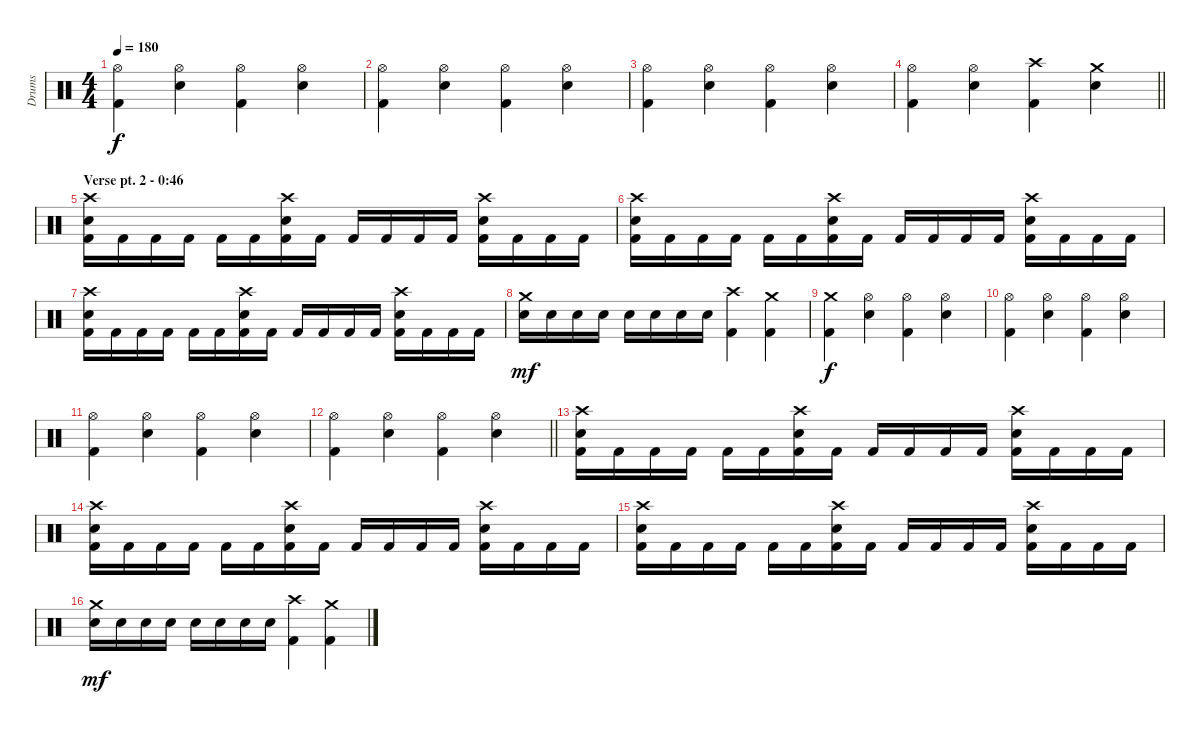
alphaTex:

\track ("Drums" "Drums") {instrument percussion}
\staff {score}
\articulation defaults
\ts (4 4)
\tempo 180
\clef neutral
\ks c
("Hi-Hat (open)" "Kick (hit) 2").4{dy f} ("Hi-Hat (open)" "Electric Snare (hit)").4 ("Hi-Hat (open)" "Kick (hit) 2").4 ("Hi-Hat (open)" "Electric Snare (hit)").4 |
("Hi-Hat (open)" "Kick (hit) 2").4 ("Hi-Hat (open)" "Electric Snare (hit)").4 ("Hi-Hat (open)" "Kick (hit) 2").4 ("Hi-Hat (open)" "Electric Snare (hit)").4 |
("Hi-Hat (open)" "Kick (hit) 2").4 ("Hi-Hat (open)" "Electric Snare (hit)").4 ("Hi-Hat (open)" "Kick (hit) 2").4 ("Hi-Hat (open)" "Electric Snare (hit)").4 |
\barLineRight lightlight
("Hi-Hat (open)" "Kick (hit) 2").4 ("Hi-Hat (open)" "Electric Snare (hit)").4 ("Crash high (hit)" "Kick (hit) 2").4 ("Crash medium (hit)" "Electric Snare (hit)").4 |
\section ("" "Verse pt. 2 - 0:46")
("Crash high (hit)" "Electric Snare (hit)" "Kick (hit) 2").16 "Kick (hit) 2".16 "Kick (hit) 2".16 "Kick (hit) 2".16 "Kick (hit) 2".16 "Kick (hit) 2".16 ("Crash high (hit)" "Electric Snare (hit)" "Kick (hit) 2").16 "Kick (hit) 2".16 "Kick (hit) 2".16 "Kick (hit) 2".16 "Kick (hit) 2".16 "Kick (hit) 2".16 ("Crash high (hit)" "Electric Snare (hit)" "Kick (hit) 2").16 "Kick (hit) 2".16 "Kick (hit) 2".16 "Kick (hit) 2".16 |
("Crash high (hit)" "Electric Snare (hit)" "Kick (hit) 2").16 "Kick (hit) 2".16 "Kick (hit) 2".16 "Kick (hit) 2".16 "Kick (hit) 2".16 "Kick (hit) 2".16 ("Crash high (hit)" "Electric Snare (hit)" "Kick (hit) 2").16 "Kick (hit) 2".16 "Kick (hit) 2".16 "Kick (hit) 2".16 "Kick (hit) 2".16 "Kick (hit) 2".16 ("Crash high (hit)" "Electric Snare (hit)" "Kick (hit) 2").16 "Kick (hit) 2".16 "Kick (hit) 2".16 "Kick (hit) 2".16 |
("Crash high (hit)" "Electric Snare (hit)" "Kick (hit) 2").16 "Kick (hit) 2".16 "Kick (hit) 2".16 "Kick (hit) 2".16 "Kick (hit) 2".16 "Kick (hit) 2".16 ("Crash high (hit)" "Electric Snare (hit)" "Kick (hit) 2").16 "Kick (hit) 2".16 "Kick (hit) 2".16 "Kick (hit) 2".16 "Kick (hit) 2".16 "Kick (hit) 2".16 ("Crash high (hit)" "Electric Snare (hit)" "Kick (hit) 2").16 "Kick (hit) 2".16 "Kick (hit) 2".16 "Kick (hit) 2".16 |
("Crash medium (hit)" "Electric Snare (hit)").16{dy mf} "Electric Snare (hit)".16 "Electric Snare (hit)".16 "Electric Snare (hit)".16 "Electric Snare (hit)".16 "Electric Snare (hit)".16 "Electric Snare (hit)".16 "Electric Snare (hit)".16 ("Crash high (hit)" "Kick (hit) 2").4 ("Crash medium (hit)" "Kick (hit) 2").4 |
("Crash medium (hit)" "Kick (hit) 2").4{dy f} ("Hi-Hat (open)" "Electric Snare (hit)").4 ("Hi-Hat (open)" "Kick (hit) 2").4 ("Hi-Hat (open)" "Electric Snare (hit)").4 |
("Hi-Hat (open)" "Kick (hit) 2").4 ("Hi-Hat (open)" "Electric Snare (hit)").4 ("Hi-Hat (open)" "Kick (hit) 2").4 ("Hi-Hat (open)" "Electric Snare (hit)").4 |
("Hi-Hat (open)" "Kick (hit) 2").4 ("Hi-Hat (open)" "Electric Snare (hit)").4 ("Hi-Hat (open)" "Kick (hit) 2").4 ("Hi-Hat (open)" "Electric Snare (hit)").4 |
\barLineRight lightlight
("Hi-Hat (open)" "Kick (hit) 2").4 ("Hi-Hat (open)" "Electric Snare (hit)").4 ("Hi-Hat (open)" "Kick (hit) 2").4 ("Hi-Hat (open)" "Electric Snare (hit)").4 |
("Crash high (hit)" "Electric Snare (hit)" "Kick (hit) 2").16 "Kick (hit) 2".16 "Kick (hit) 2".16 "Kick (hit) 2".16 "Kick (hit) 2".16 "Kick (hit) 2".16 ("Crash high (hit)" "Electric Snare (hit)" "Kick (hit) 2").16 "Kick (hit) 2".16 "Kick (hit) 2".16 "Kick (hit) 2".16 "Kick (hit) 2".16 "Kick (hit) 2".16 ("Crash high (hit)" "Electric Snare (hit)" "Kick (hit) 2").16 "Kick (hit) 2".16 "Kick (hit) 2".16 "Kick (hit) 2".16 |
("Crash high (hit)" "Electric Snare (hit)" "Kick (hit) 2").16 "Kick (hit) 2".16 "Kick (hit) 2".16 "Kick (hit) 2".16 "Kick (hit) 2".16 "Kick (hit) 2".16 ("Crash high (hit)" "Electric Snare (hit)" "Kick (hit) 2").16 "Kick (hit) 2".16 "Kick (hit) 2".16 "Kick (hit) 2".16 "Kick (hit) 2".16 "Kick (hit) 2".16 ("Crash high (hit)" "Electric Snare (hit)" "Kick (hit) 2").16 "Kick (hit) 2".16 "Kick (hit) 2".16 "Kick (hit) 2".16 |
("Crash high (hit)" "Electric Snare (hit)" "Kick (hit) 2").16 "Kick (hit) 2".16 "Kick (hit) 2".16 "Kick (hit) 2".16 "Kick (hit) 2".16 "Kick (hit) 2".16 ("Crash high (hit)" "Electric Snare (hit)" "Kick (hit) 2").16 "Kick (hit) 2".16 "Kick (hit) 2".16 "Kick (hit) 2".16 "Kick (hit) 2".16 "Kick (hit) 2".16 ("Crash high (hit)" "Electric Snare (hit)" "Kick (hit) 2").16 "Kick (hit) 2".16 "Kick (hit) 2".16 "Kick (hit) 2".16 |
("Crash medium (hit)" "Electric Snare (hit)").16{dy mf} "Electric Snare (hit)".16 "Electric Snare (hit)".16 "Electric Snare (hit)".16 "Electric Snare (hit)".16 "Electric Snare (hit)".16 "Electric Snare (hit)".16 "Electric Snare (hit)".16 ("Crash high (hit)" "Kick (hit) 2").4 ("Crash medium (hit)" "Kick (hit) 2").4
